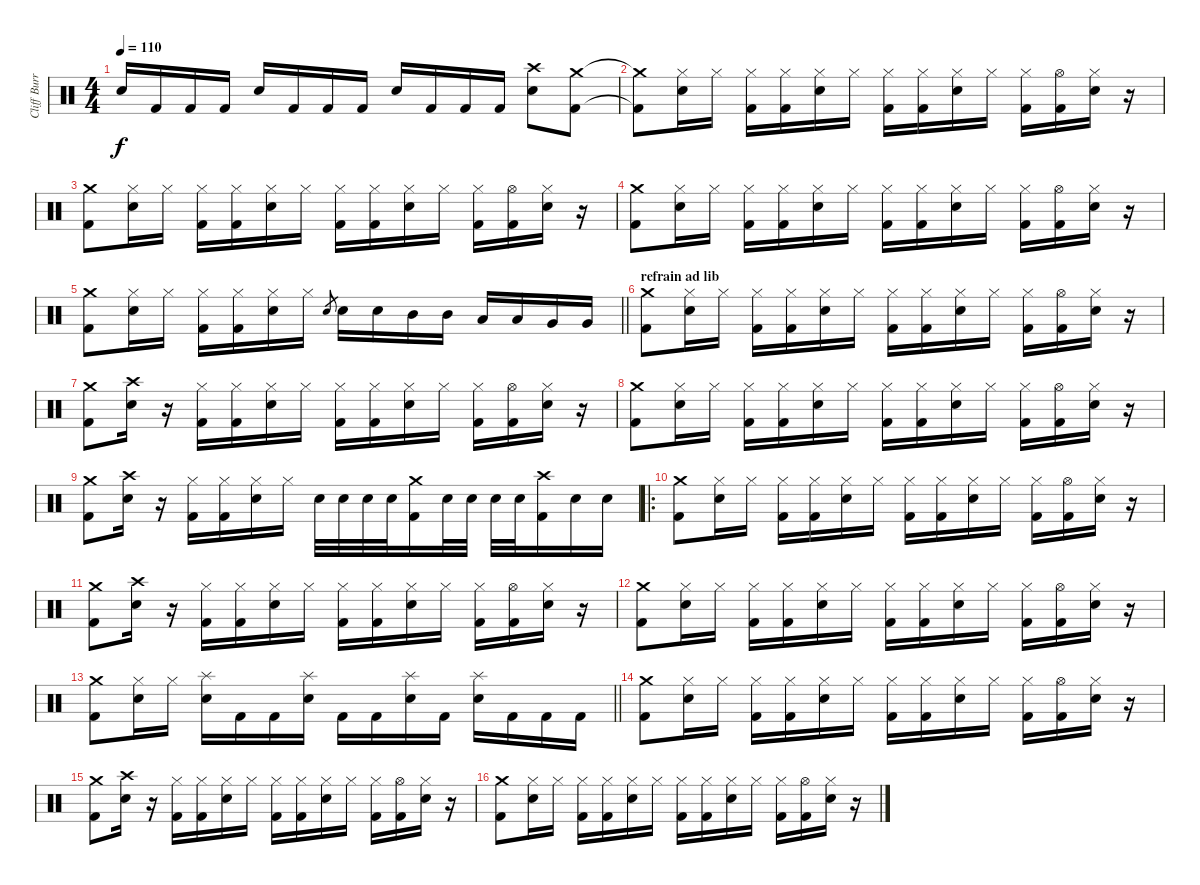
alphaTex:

\track ("Cliff Burr" "Cliff Burr") {instrument percussion}
\staff {score}
\articulation defaults
\ts (4 4)
\tempo 110
\clef neutral
\ks c "Electric Snare (hit)".16{dy f} "Kick (hit) 2".16 "Kick (hit) 2".16 "Kick (hit) 2".16 "Electric Snare (hit)".16 "Kick (hit) 2".16 "Kick (hit) 2".16 "Kick (hit) 2".16 "Electric Snare (hit)".16 "Kick (hit) 2".16 "Kick (hit) 2".16 "Kick (hit) 2".16
("Crash high (hit)" "Electric Snare (hit)").8 ("Crash medium (hit)" "Kick (hit) 2").8 |
("Crash medium (hit)"{t} "Kick (hit) 2"{t}).8 ("Hi-Hat (closed)" "Electric Snare (hit)").16 "Hi-Hat (closed)".16 ("Hi-Hat (closed)" "Kick (hit) 2").16 ("Hi-Hat (closed)" "Kick (hit) 2").16 ("Hi-Hat (closed)" "Electric Snare (hit)").16 "Hi-Hat (closed)".16 ("Hi-Hat (closed)" "Kick (hit) 2").16 ("Hi-Hat (closed)" "Kick (hit) 2").16 ("Hi-Hat (closed)" "Electric Snare (hit)").16 "Hi-Hat (closed)".16 ("Hi-Hat (closed)" "Kick (hit) 2").16 ("Hi-Hat (open)" "Kick (hit) 2").16 ("Hi-Hat (closed)" "Electric Snare (hit)").16 r.16 |
("Crash medium (hit)" "Kick (hit) 2").8 ("Hi-Hat (closed)" "Electric Snare (hit)").16 "Hi-Hat (closed)".16 ("Hi-Hat (closed)" "Kick (hit) 2").16 ("Hi-Hat (closed)" "Kick (hit) 2").16 ("Hi-Hat (closed)" "Electric Snare (hit)").16 "Hi-Hat (closed)".16 ("Hi-Hat (closed)" "Kick (hit) 2").16 ("Hi-Hat (closed)" "Kick (hit) 2").16 ("Hi-Hat (closed)" "Electric Snare (hit)").16 "Hi-Hat (closed)".16 ("Hi-Hat (closed)" "Kick (hit) 2").16 ("Hi-Hat (open)" "Kick (hit) 2").16 ("Hi-Hat (closed)" "Electric Snare (hit)").16 r.16 |
("Crash medium (hit)" "Kick (hit) 2").8 ("Hi-Hat (closed)" "Electric Snare (hit)").16 "Hi-Hat (closed)".16 ("Hi-Hat (closed)" "Kick (hit) 2").16 ("Hi-Hat (closed)" "Kick (hit) 2").16 ("Hi-Hat (closed)" "Electric Snare (hit)").16 "Hi-Hat (closed)".16 ("Hi-Hat (closed)" "Kick (hit) 2").16 ("Hi-Hat (closed)" "Kick (hit) 2").16 ("Hi-Hat (closed)" "Electric Snare (hit)").16 "Hi-Hat (closed)".16 ("Hi-Hat (closed)" "Kick (hit) 2").16 ("Hi-Hat (open)" "Kick (hit) 2").16 ("Hi-Hat (closed)" "Electric Snare (hit)").16 r.16 |
\barLineRight lightlight
("Crash medium (hit)" "Kick (hit) 2").8 ("Hi-Hat (closed)" "Electric Snare (hit)").16 "Hi-Hat (closed)".16 ("Hi-Hat (closed)" "Kick (hit) 2").16 ("Hi-Hat (closed)" "Kick (hit) 2").16 ("Hi-Hat (closed)" "Electric Snare (hit)").16 "Hi-Hat (closed)".16 "Electric Snare (hit)".8{gr} "Electric Snare (hit)".16 "Electric Snare (hit)".16 "Mid Tom (hit)".16 "Mid Tom (hit)".16 "Low Tom (hit)".16 "Low Tom (hit)".16 "Very Low Tom (hit)".16 "Very Low Tom (hit)".16 |
\section ("" "refrain ad lib")
("Crash medium (hit)" "Kick (hit) 2").8 ("Hi-Hat (closed)" "Electric Snare (hit)").16 "Hi-Hat (closed)".16 ("Hi-Hat (closed)" "Kick (hit) 2").16 ("Hi-Hat (closed)" "Kick (hit) 2").16 ("Hi-Hat (closed)" "Electric Snare (hit)").16 "Hi-Hat (closed)".16 ("Hi-Hat (closed)" "Kick (hit) 2").16 ("Hi-Hat (closed)" "Kick (hit) 2").16 ("Hi-Hat (closed)" "Electric Snare (hit)").16 "Hi-Hat (closed)".16 ("Hi-Hat (closed)" "Kick (hit) 2").16 ("Hi-Hat (open)" "Kick (hit) 2").16 ("Hi-Hat (closed)" "Electric Snare (hit)").16 r.16 |
("Crash medium (hit)" "Kick (hit) 2").8 ("Crash high (hit)" "Electric Snare (hit)").16 r.16 ("Hi-Hat (closed)" "Kick (hit) 2").16 ("Hi-Hat (closed)" "Kick (hit) 2").16 ("Hi-Hat (closed)" "Electric Snare (hit)").16 "Hi-Hat (closed)".16 ("Hi-Hat (closed)" "Kick (hit) 2").16 ("Hi-Hat (closed)" "Kick (hit) 2").16 ("Hi-Hat (closed)" "Electric Snare (hit)").16 "Hi-Hat (closed)".16 ("Hi-Hat (closed)" "Kick (hit) 2").16 ("Hi-Hat (open)" "Kick (hit) 2").16 ("Hi-Hat (closed)" "Electric Snare (hit)").16 r.16 |
("Crash medium (hit)" "Kick (hit) 2").8 ("Hi-Hat (closed)" "Electric Snare (hit)").16 "Hi-Hat (closed)".16 ("Hi-Hat (closed)" "Kick (hit) 2").16 ("Hi-Hat (closed)" "Kick (hit) 2").16 ("Hi-Hat (closed)" "Electric Snare (hit)").16 "Hi-Hat (closed)".16 ("Hi-Hat (closed)" "Kick (hit) 2").16 ("Hi-Hat (closed)" "Kick (hit) 2").16 ("Hi-Hat (closed)" "Electric Snare (hit)").16 "Hi-Hat (closed)".16 ("Hi-Hat (closed)" "Kick (hit) 2").16 ("Hi-Hat (open)" "Kick (hit) 2").16 ("Hi-Hat (closed)" "Electric Snare (hit)").16 r.16 |
("Crash medium (hit)" "Kick (hit) 2").8 ("Crash high (hit)" "Electric Snare (hit)").16 r.16 ("Hi-Hat (closed)" "Kick (hit) 2").16 ("Hi-Hat (closed)" "Kick (hit) 2").16 ("Hi-Hat (closed)" "Electric Snare (hit)").16 "Hi-Hat (closed)".16 "Electric Snare (hit)".32 "Electric Snare (hit)".32 "Electric Snare (hit)".32 "Electric Snare (hit)".32 ("Crash medium (hit)" "Kick (hit) 2").16 "Electric Snare (hit)".32 "Electric Snare (hit)".32 "Electric Snare (hit)".32 "Electric Snare (hit)".32 ("Crash high (hit)" "Kick (hit) 2").16 "Electric Snare (hit)".16 "Electric Snare (hit)".16 |
\ro
("Crash medium (hit)" "Kick (hit) 2").8 ("Hi-Hat (closed)" "Electric Snare (hit)").16 "Hi-Hat (closed)".16 ("Hi-Hat (closed)" "Kick (hit) 2").16 ("Hi-Hat (closed)" "Kick (hit) 2").16 ("Hi-Hat (closed)" "Electric Snare (hit)").16 "Hi-Hat (closed)".16 ("Hi-Hat (closed)" "Kick (hit) 2").16 ("Hi-Hat (closed)" "Kick (hit) 2").16 ("Hi-Hat (closed)" "Electric Snare (hit)").16 "Hi-Hat (closed)".16 ("Hi-Hat (closed)" "Kick (hit) 2").16 ("Hi-Hat (open)" "Kick (hit) 2").16 ("Hi-Hat (closed)" "Electric Snare (hit)").16 r.16 |
("Crash medium (hit)" "Kick (hit) 2").8 ("Crash high (hit)" "Electric Snare (hit)").16 r.16 ("Hi-Hat (closed)" "Kick (hit) 2").16 ("Hi-Hat (closed)" "Kick (hit) 2").16 ("Hi-Hat (closed)" "Electric Snare (hit)").16 "Hi-Hat (closed)".16 ("Hi-Hat (closed)" "Kick (hit) 2").16 ("Hi-Hat (closed)" "Kick (hit) 2").16 ("Hi-Hat (closed)" "Electric Snare (hit)").16 "Hi-Hat (closed)".16 ("Hi-Hat (closed)" "Kick (hit) 2").16 ("Hi-Hat (open)" "Kick (hit) 2").16 ("Hi-Hat (closed)" "Electric Snare (hit)").16 r.16 |
("Crash medium (hit)" "Kick (hit) 2").8 ("Hi-Hat (closed)" "Electric Snare (hit)").16 "Hi-Hat (closed)".16 ("Hi-Hat (closed)" "Kick (hit) 2").16 ("Hi-Hat (closed)" "Kick (hit) 2").16 ("Hi-Hat (closed)" "Electric Snare (hit)").16 "Hi-Hat (closed)".16 ("Hi-Hat (closed)" "Kick (hit) 2").16 ("Hi-Hat (closed)" "Kick (hit) 2").16 ("Hi-Hat (closed)" "Electric Snare (hit)").16 "Hi-Hat (closed)".16 ("Hi-Hat (closed)" "Kick (hit) 2").16 ("Hi-Hat (open)" "Kick (hit) 2").16 ("Hi-Hat (closed)" "Electric Snare (hit)").16 r.16 |
\barLineRight lightlight
("Crash medium (hit)" "Kick (hit) 2").8 ("Hi-Hat (closed)" "Electric Snare (hit)").16 "Hi-Hat (closed)".16 ("Splash (hit)" "Electric Snare (hit)").16 "Kick (hit) 2".16 "Kick (hit) 2".16 ("Splash (hit)" "Electric Snare (hit)").16 "Kick (hit) 2".16 "Kick (hit) 2".16 ("Splash (hit)" "Electric Snare (hit)").16 "Kick (hit) 2".16 ("Splash (hit)" "Electric Snare (hit)").16 "Kick (hit) 2".16 "Kick (hit) 2".16 "Kick (hit) 2".16 |
("Crash medium (hit)" "Kick (hit) 2").8 ("Hi-Hat (closed)" "Electric Snare (hit)").16 "Hi-Hat (closed)".16 ("Hi-Hat (closed)" "Kick (hit) 2").16 ("Hi-Hat (closed)" "Kick (hit) 2").16 ("Hi-Hat (closed)" "Electric Snare (hit)").16 "Hi-Hat (closed)".16 ("Hi-Hat (closed)" "Kick (hit) 2").16 ("Hi-Hat (closed)" "Kick (hit) 2").16 ("Hi-Hat (closed)" "Electric Snare (hit)").16 "Hi-Hat (closed)".16 ("Hi-Hat (closed)" "Kick (hit) 2").16 ("Hi-Hat (open)" "Kick (hit) 2").16 ("Hi-Hat (closed)" "Electric Snare (hit)").16 r.16 |
("Crash medium (hit)" "Kick (hit) 2").8 ("Crash high (hit)" "Electric Snare (hit)").16 r.16 ("Hi-Hat (closed)" "Kick (hit) 2").16 ("Hi-Hat (closed)" "Kick (hit) 2").16 ("Hi-Hat (closed)" "Electric Snare (hit)").16 "Hi-Hat (closed)".16 ("Hi-Hat (closed)" "Kick (hit) 2").16 ("Hi-Hat (closed)" "Kick (hit) 2").16 ("Hi-Hat (closed)" "Electric Snare (hit)").16 "Hi-Hat (closed)".16 ("Hi-Hat (closed)" "Kick (hit) 2").16 ("Hi-Hat (open)" "Kick (hit) 2").16 ("Hi-Hat (closed)" "Electric Snare (hit)").16 r.16 |
("Crash medium (hit)" "Kick (hit) 2").8 ("Hi-Hat (closed)" "Electric Snare (hit)").16 "Hi-Hat (closed)".16 ("Hi-Hat (closed)" "Kick (hit) 2").16 ("Hi-Hat (closed)" "Kick (hit) 2").16 ("Hi-Hat (closed)" "Electric Snare (hit)").16 "Hi-Hat (closed)".16 ("Hi-Hat (closed)" "Kick (hit) 2").16 ("Hi-Hat (closed)" "Kick (hit) 2").16 ("Hi-Hat (closed)" "Electric Snare (hit)").16 "Hi-Hat (closed)".16 ("Hi-Hat (closed)" "Kick (hit) 2").16 ("Hi-Hat (open)" "Kick (hit) 2").16 ("Hi-Hat (closed)" "Electric Snare (hit)").16 r.16
